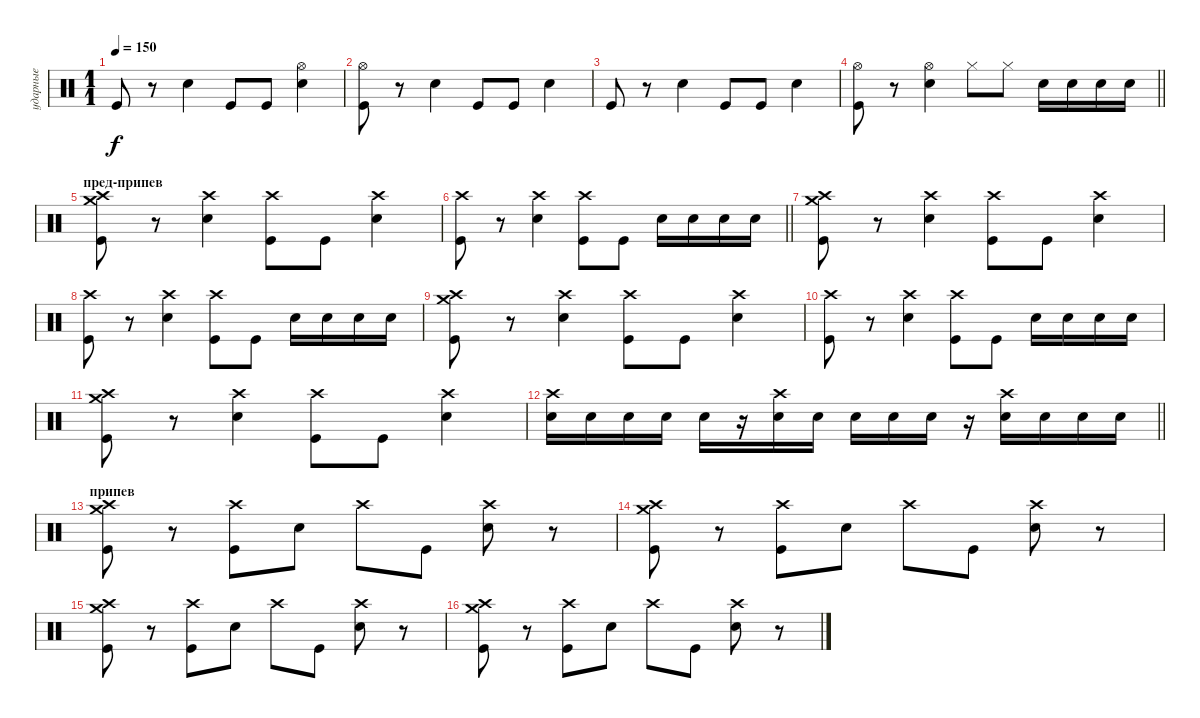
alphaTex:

\track ("ударные" "ударные") {instrument percussion}
\staff {score}
\articulation defaults
\ts (1 1)
\tempo 150
\clef neutral
\ks c "Kick (hit)".8{dy f}
r.8 "Snare (hit) 2".4 "Kick (hit)".8 "Kick (hit)".8 ("Hi-Hat (open)" "Snare (hit) 2").4 |
("Hi-Hat (open)" "Kick (hit)").8 r.8 "Snare (hit) 2".4 "Kick (hit)".8 "Kick (hit)".8 "Snare (hit) 2".4 |
"Kick (hit)".8 r.8 "Snare (hit) 2".4 "Kick (hit)".8 "Kick (hit)".8 "Snare (hit) 2".4 |
\barLineRight lightlight
("Hi-Hat (open)" "Kick (hit)").8 r.8 ("Hi-Hat (open)" "Snare (hit) 2").4 "Hi-Hat (closed)".8 "Hi-Hat (closed)".8 "Snare (hit) 2".16 "Snare (hit) 2".16 "Snare (hit) 2".16 "Snare (hit) 2".16 |
\section ("" "пред-припев")
("Crash high (hit)" "Crash medium (hit)" "Kick (hit)").8 r.8 ("Crash high (hit)" "Snare (hit) 2").4 ("Crash high (hit)" "Kick (hit)").8 "Kick (hit)".8 ("Crash high (hit)" "Snare (hit) 2").4 |
\barLineRight lightlight
("Crash high (hit)" "Kick (hit)").8 r.8 ("Crash high (hit)" "Snare (hit) 2").4 ("Crash high (hit)" "Kick (hit)").8 "Kick (hit)".8 "Snare (hit) 2".16 "Snare (hit) 2".16 "Snare (hit) 2".16 "Snare (hit) 2".16 |
("Crash high (hit)" "Crash medium (hit)" "Kick (hit)").8 r.8 ("Crash high (hit)" "Snare (hit) 2").4 ("Crash high (hit)" "Kick (hit)").8 "Kick (hit)".8 ("Crash high (hit)" "Snare (hit) 2").4 |
("Crash high (hit)" "Kick (hit)").8 r.8 ("Crash high (hit)" "Snare (hit) 2").4 ("Crash high (hit)" "Kick (hit)").8 "Kick (hit)".8 "Snare (hit) 2".16 "Snare (hit) 2".16 "Snare (hit) 2".16 "Snare (hit) 2".16 |
("Crash high (hit)" "Crash medium (hit)" "Kick (hit)").8 r.8 ("Crash high (hit)" "Snare (hit) 2").4 ("Crash high (hit)" "Kick (hit)").8 "Kick (hit)".8 ("Crash high (hit)" "Snare (hit) 2").4 |
("Crash high (hit)" "Kick (hit)").8 r.8 ("Crash high (hit)" "Snare (hit) 2").4 ("Crash high (hit)" "Kick (hit)").8 "Kick (hit)".8 "Snare (hit) 2".16 "Snare (hit) 2".16 "Snare (hit) 2".16 "Snare (hit) 2".16 |
("Crash high (hit)" "Crash medium (hit)" "Kick (hit)").8 r.8 ("Crash high (hit)" "Snare (hit) 2").4 ("Crash high (hit)" "Kick (hit)").8 "Kick (hit)".8 ("Crash high (hit)" "Snare (hit) 2").4 |
\barLineRight lightlight
("Crash high (hit)" "Snare (hit) 2").16 "Snare (hit) 2".16 "Snare (hit) 2".16 "Snare (hit) 2".16 "Snare (hit) 2".16 r.16 ("Crash high (hit)" "Snare (hit) 2").16 "Snare (hit) 2".16 "Snare (hit) 2".16 "Snare (hit) 2".16 "Snare (hit) 2".16 r.16 ("Crash high (hit)" "Snare (hit) 2").16 "Snare (hit) 2".16 "Snare (hit) 2".16 "Snare (hit) 2".16 |
\section ("" "припев")
("Crash high (hit)" "Crash medium (hit)" "Kick (hit)").8 r.8 ("Crash high (hit)" "Kick (hit)").8 "Snare (hit) 2".8 "Crash high (hit)".8 "Kick (hit)".8 ("Crash high (hit)" "Snare (hit) 2").8 r.8 |
("Crash high (hit)" "Crash medium (hit)" "Kick (hit)").8 r.8 ("Crash high (hit)" "Kick (hit)").8 "Snare (hit) 2".8 "Crash high (hit)".8 "Kick (hit)".8 ("Crash high (hit)" "Snare (hit) 2").8 r.8 |
("Crash high (hit)" "Crash medium (hit)" "Kick (hit)").8 r.8 ("Crash high (hit)" "Kick (hit)").8 "Snare (hit) 2".8 "Crash high (hit)".8 "Kick (hit)".8 ("Crash high (hit)" "Snare (hit) 2").8 r.8 |
("Crash high (hit)" "Crash medium (hit)" "Kick (hit)").8 r.8 ("Crash high (hit)" "Kick (hit)").8 "Snare (hit) 2".8 "Crash high (hit)".8 "Kick (hit)".8 ("Crash high (hit)" "Snare (hit) 2").8 r.8
